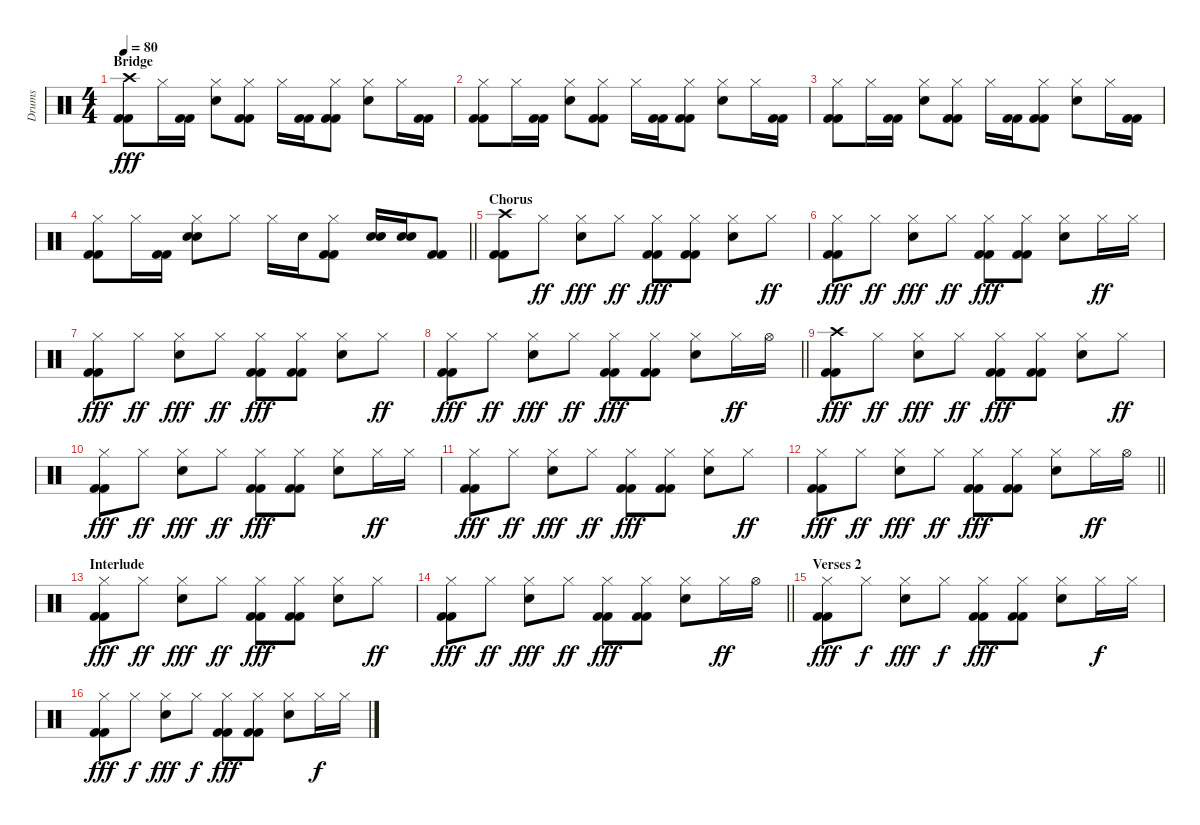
\track ("Drums" "Drums") {instrument percussion}
\staff {score}
\articulation defaults
\ts (4 4)
\section ("" "Bridge")
\tempo 80
\clef neutral
\ks c
("Crash high (hit)" "Kick (hit) 2" "Kick (hit) 2").8{dy fff} "Hi-Hat (closed)".16 ("Kick (hit) 2" "Kick (hit) 2").16 ("Hi-Hat (closed)" "Electric Snare (hit)").8 ("Hi-Hat (closed)" "Kick (hit) 2" "Kick (hit) 2").8 "Hi-Hat (closed)".16 ("Kick (hit) 2" "Kick (hit) 2").16 ("Hi-Hat (closed)" "Kick (hit) 2" "Kick (hit) 2").8 ("Hi-Hat (closed)" "Electric Snare (hit)").8 "Hi-Hat (closed)".16 ("Kick (hit) 2" "Kick (hit) 2").16 |
("Hi-Hat (closed)" "Kick (hit) 2" "Kick (hit) 2").8 "Hi-Hat (closed)".16 ("Kick (hit) 2" "Kick (hit) 2").16 ("Hi-Hat (closed)" "Electric Snare (hit)").8 ("Hi-Hat (closed)" "Kick (hit) 2" "Kick (hit) 2").8 "Hi-Hat (closed)".16 ("Kick (hit) 2" "Kick (hit) 2").16 ("Hi-Hat (closed)" "Kick (hit) 2" "Kick (hit) 2").8 ("Hi-Hat (closed)" "Electric Snare (hit)").8 "Hi-Hat (closed)".16 ("Kick (hit) 2" "Kick (hit) 2").16 |
("Hi-Hat (closed)" "Kick (hit) 2" "Kick (hit) 2").8 "Hi-Hat (closed)".16 ("Kick (hit) 2" "Kick (hit) 2").16 ("Hi-Hat (closed)" "Electric Snare (hit)").8 ("Hi-Hat (closed)" "Kick (hit) 2" "Kick (hit) 2").8 "Hi-Hat (closed)".16 ("Kick (hit) 2" "Kick (hit) 2").16 ("Hi-Hat (closed)" "Kick (hit) 2" "Kick (hit) 2").8 ("Hi-Hat (closed)" "Electric Snare (hit)").8 "Hi-Hat (closed)".16 ("Kick (hit) 2" "Kick (hit) 2").16 |
\barLineRight lightlight
("Hi-Hat (closed)" "Kick (hit) 2" "Kick (hit) 2").8 "Hi-Hat (closed)".16 ("Kick (hit) 2" "Kick (hit) 2").16 ("Hi-Hat (closed)" "Electric Snare (hit)" "Electric Snare (hit)").8 "Hi-Hat (closed)".8 "Hi-Hat (closed)".16 "Electric Snare (hit)".16 ("Hi-Hat (closed)" "Kick (hit) 2" "Kick (hit) 2").8 ("Electric Snare (hit)" "Electric Snare (hit)").16 ("Electric Snare (hit)" "Electric Snare (hit)").16 ("Kick (hit) 2" "Kick (hit) 2").8 |
\section ("" "Chorus")
("Crash high (hit)" "Kick (hit) 2" "Kick (hit) 2").8 "Hi-Hat (closed)".8{dy ff} ("Hi-Hat (closed)" "Electric Snare (hit)").8{dy fff} "Hi-Hat (closed)".8{dy ff} ("Hi-Hat (closed)" "Kick (hit) 2" "Kick (hit) 2").8{dy fff} ("Hi-Hat (closed)" "Kick (hit) 2" "Kick (hit) 2").8 ("Hi-Hat (closed)" "Electric Snare (hit)").8 "Hi-Hat (closed)".8{dy ff} |
("Hi-Hat (closed)" "Kick (hit) 2" "Kick (hit) 2").8{dy fff} "Hi-Hat (closed)".8{dy ff} ("Hi-Hat (closed)" "Electric Snare (hit)").8{dy fff} "Hi-Hat (closed)".8{dy ff} ("Hi-Hat (closed)" "Kick (hit) 2" "Kick (hit) 2").8{dy fff} ("Hi-Hat (closed)" "Kick (hit) 2" "Kick (hit) 2").8 ("Hi-Hat (closed)" "Electric Snare (hit)").8 "Hi-Hat (closed)".16{dy ff} "Hi-Hat (closed)".16 |
("Hi-Hat (closed)" "Kick (hit) 2" "Kick (hit) 2").8{dy fff} "Hi-Hat (closed)".8{dy ff} ("Hi-Hat (closed)" "Electric Snare (hit)").8{dy fff} "Hi-Hat (closed)".8{dy ff} ("Hi-Hat (closed)" "Kick (hit) 2" "Kick (hit) 2").8{dy fff} ("Hi-Hat (closed)" "Kick (hit) 2" "Kick (hit) 2").8 ("Hi-Hat (closed)" "Electric Snare (hit)").8 "Hi-Hat (closed)".8{dy ff} |
\barLineRight lightlight
("Hi-Hat (closed)" "Kick (hit) 2" "Kick (hit) 2").8{dy fff} "Hi-Hat (closed)".8{dy ff} ("Hi-Hat (closed)" "Electric Snare (hit)").8{dy fff} "Hi-Hat (closed)".8{dy ff} ("Hi-Hat (closed)" "Kick (hit) 2" "Kick (hit) 2").8{dy fff} ("Hi-Hat (closed)" "Kick (hit) 2" "Kick (hit) 2").8 ("Hi-Hat (closed)" "Electric Snare (hit)").8 "Hi-Hat (closed)".16{dy ff} "Hi-Hat (open)".16 |
("Crash high (hit)" "Kick (hit) 2" "Kick (hit) 2").8{dy fff} "Hi-Hat (closed)".8{dy ff} ("Hi-Hat (closed)" "Electric Snare (hit)").8{dy fff} "Hi-Hat (closed)".8{dy ff} ("Hi-Hat (closed)" "Kick (hit) 2" "Kick (hit) 2").8{dy fff} ("Hi-Hat (closed)" "Kick (hit) 2" "Kick (hit) 2").8 ("Hi-Hat (closed)" "Electric Snare (hit)").8 "Hi-Hat (closed)".8{dy ff} |
("Hi-Hat (closed)" "Kick (hit) 2" "Kick (hit) 2").8{dy fff} "Hi-Hat (closed)".8{dy ff} ("Hi-Hat (closed)" "Electric Snare (hit)").8{dy fff} "Hi-Hat (closed)".8{dy ff} ("Hi-Hat (closed)" "Kick (hit) 2" "Kick (hit) 2").8{dy fff} ("Hi-Hat (closed)" "Kick (hit) 2" "Kick (hit) 2").8 ("Hi-Hat (closed)" "Electric Snare (hit)").8 "Hi-Hat (closed)".16{dy ff} "Hi-Hat (closed)".16 |
("Hi-Hat (closed)" "Kick (hit) 2" "Kick (hit) 2").8{dy fff} "Hi-Hat (closed)".8{dy ff} ("Hi-Hat (closed)" "Electric Snare (hit)").8{dy fff} "Hi-Hat (closed)".8{dy ff} ("Hi-Hat (closed)" "Kick (hit) 2" "Kick (hit) 2").8{dy fff} ("Hi-Hat (closed)" "Kick (hit) 2" "Kick (hit) 2").8 ("Hi-Hat (closed)" "Electric Snare (hit)").8 "Hi-Hat (closed)".8{dy ff} |
\barLineRight lightlight
("Hi-Hat (closed)" "Kick (hit) 2" "Kick (hit) 2").8{dy fff} "Hi-Hat (closed)".8{dy ff} ("Hi-Hat (closed)" "Electric Snare (hit)").8{dy fff} "Hi-Hat (closed)".8{dy ff} ("Hi-Hat (closed)" "Kick (hit) 2" "Kick (hit) 2").8{dy fff} ("Hi-Hat (closed)" "Kick (hit) 2" "Kick (hit) 2").8 ("Hi-Hat (closed)" "Electric Snare (hit)").8 "Hi-Hat (closed)".16{dy ff} "Hi-Hat (open)".16 |
\section ("" "Interlude")
("Hi-Hat (closed)" "Kick (hit) 2" "Kick (hit) 2").8{dy fff} "Hi-Hat (closed)".8{dy ff} ("Hi-Hat (closed)" "Electric Snare (hit)").8{dy fff} "Hi-Hat (closed)".8{dy ff} ("Hi-Hat (closed)" "Kick (hit) 2" "Kick (hit) 2").8{dy fff} ("Hi-Hat (closed)" "Kick (hit) 2" "Kick (hit) 2").8 ("Hi-Hat (closed)" "Electric Snare (hit)").8 "Hi-Hat (closed)".8{dy ff} |
\barLineRight lightlight
("Hi-Hat (closed)" "Kick (hit) 2" "Kick (hit) 2").8{dy fff} "Hi-Hat (closed)".8{dy ff} ("Hi-Hat (closed)" "Electric Snare (hit)").8{dy fff} "Hi-Hat (closed)".8{dy ff} ("Hi-Hat (closed)" "Kick (hit) 2" "Kick (hit) 2").8{dy fff} ("Hi-Hat (closed)" "Kick (hit) 2" "Kick (hit) 2").8 ("Hi-Hat (closed)" "Electric Snare (hit)").8 "Hi-Hat (closed)".16{dy ff} "Hi-Hat (open)".16 |
\section ("" "Verses 2")
("Hi-Hat (closed)" "Kick (hit) 2" "Kick (hit) 2").8{dy fff} "Hi-Hat (closed)".8{dy f} ("Hi-Hat (closed)" "Electric Snare (hit)").8{dy fff} "Hi-Hat (closed)".8{dy f} ("Hi-Hat (closed)" "Kick (hit) 2" "Kick (hit) 2").8{dy fff} ("Hi-Hat (closed)" "Kick (hit) 2" "Kick (hit) 2").8 ("Hi-Hat (closed)" "Electric Snare (hit)").8 "Hi-Hat (closed)".16{dy f} "Hi-Hat (closed)".16 |
("Hi-Hat (closed)" "Kick (hit) 2" "Kick (hit) 2").8{dy fff} "Hi-Hat (closed)".8{dy f} ("Hi-Hat (closed)" "Electric Snare (hit)").8{dy fff} "Hi-Hat (closed)".8{dy f} ("Hi-Hat (closed)" "Kick (hit) 2" "Kick (hit) 2").8{dy fff} ("Hi-Hat (closed)" "Kick (hit) 2" "Kick (hit) 2").8 ("Hi-Hat (closed)" "Electric Snare (hit)").8 "Hi-Hat (closed)".16{dy f} "Hi-Hat (closed)".16
